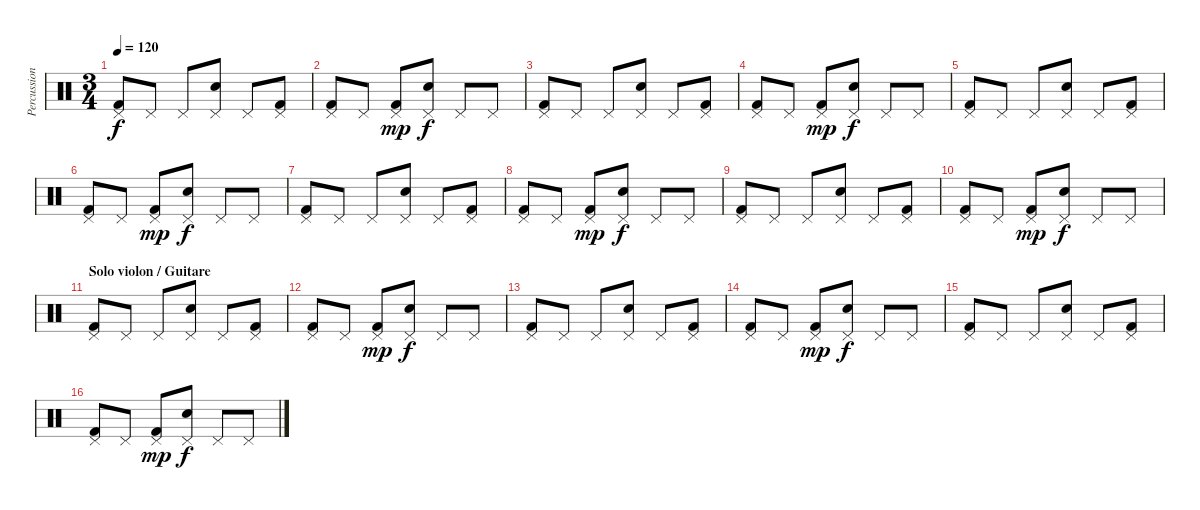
\track ("Percussions" "Percussion") {instrument percussion}
\staff {score}
\articulation defaults
\ts (3 4)
\tempo 120
\clef neutral
\ks c
("Pedal Hi-Hat (hit)" "Kick (hit) 2").8{dy f} "Pedal Hi-Hat (hit)".8 "Pedal Hi-Hat (hit)".8 ("Pedal Hi-Hat (hit)" "Electric Snare (hit)").8 "Pedal Hi-Hat (hit)".8 ("Pedal Hi-Hat (hit)" "Kick (hit) 2").8 |
("Pedal Hi-Hat (hit)" "Kick (hit) 2").8 "Pedal Hi-Hat (hit)".8 ("Pedal Hi-Hat (hit)" "Kick (hit) 2").8{dy mp} ("Pedal Hi-Hat (hit)" "Electric Snare (hit)").8{dy f} "Pedal Hi-Hat (hit)".8 "Pedal Hi-Hat (hit)".8 |
("Pedal Hi-Hat (hit)" "Kick (hit) 2").8 "Pedal Hi-Hat (hit)".8 "Pedal Hi-Hat (hit)".8 ("Pedal Hi-Hat (hit)" "Electric Snare (hit)").8 "Pedal Hi-Hat (hit)".8 ("Pedal Hi-Hat (hit)" "Kick (hit) 2").8 |
("Pedal Hi-Hat (hit)" "Kick (hit) 2").8 "Pedal Hi-Hat (hit)".8 ("Pedal Hi-Hat (hit)" "Kick (hit) 2").8{dy mp} ("Pedal Hi-Hat (hit)" "Electric Snare (hit)").8{dy f} "Pedal Hi-Hat (hit)".8 "Pedal Hi-Hat (hit)".8 |
("Pedal Hi-Hat (hit)" "Kick (hit) 2").8 "Pedal Hi-Hat (hit)".8 "Pedal Hi-Hat (hit)".8 ("Pedal Hi-Hat (hit)" "Electric Snare (hit)").8 "Pedal Hi-Hat (hit)".8 ("Pedal Hi-Hat (hit)" "Kick (hit) 2").8 |
("Pedal Hi-Hat (hit)" "Kick (hit) 2").8 "Pedal Hi-Hat (hit)".8 ("Pedal Hi-Hat (hit)" "Kick (hit) 2").8{dy mp} ("Pedal Hi-Hat (hit)" "Electric Snare (hit)").8{dy f} "Pedal Hi-Hat (hit)".8 "Pedal Hi-Hat (hit)".8 |
("Pedal Hi-Hat (hit)" "Kick (hit) 2").8 "Pedal Hi-Hat (hit)".8 "Pedal Hi-Hat (hit)".8 ("Pedal Hi-Hat (hit)" "Electric Snare (hit)").8 "Pedal Hi-Hat (hit)".8 ("Pedal Hi-Hat (hit)" "Kick (hit) 2").8 |
("Pedal Hi-Hat (hit)" "Kick (hit) 2").8 "Pedal Hi-Hat (hit)".8 ("Pedal Hi-Hat (hit)" "Kick (hit) 2").8{dy mp} ("Pedal Hi-Hat (hit)" "Electric Snare (hit)").8{dy f} "Pedal Hi-Hat (hit)".8 "Pedal Hi-Hat (hit)".8 |
("Pedal Hi-Hat (hit)" "Kick (hit) 2").8 "Pedal Hi-Hat (hit)".8 "Pedal Hi-Hat (hit)".8 ("Pedal Hi-Hat (hit)" "Electric Snare (hit)").8 "Pedal Hi-Hat (hit)".8 ("Pedal Hi-Hat (hit)" "Kick (hit) 2").8 |
("Pedal Hi-Hat (hit)" "Kick (hit) 2").8 "Pedal Hi-Hat (hit)".8 ("Pedal Hi-Hat (hit)" "Kick (hit) 2").8{dy mp} ("Pedal Hi-Hat (hit)" "Electric Snare (hit)").8{dy f} "Pedal Hi-Hat (hit)".8 "Pedal Hi-Hat (hit)".8 |
\section ("" "Solo violon / Guitare")
("Pedal Hi-Hat (hit)" "Kick (hit) 2").8 "Pedal Hi-Hat (hit)".8 "Pedal Hi-Hat (hit)".8 ("Pedal Hi-Hat (hit)" "Electric Snare (hit)").8 "Pedal Hi-Hat (hit)".8 ("Pedal Hi-Hat (hit)" "Kick (hit) 2").8 |
("Pedal Hi-Hat (hit)" "Kick (hit) 2").8 "Pedal Hi-Hat (hit)".8 ("Pedal Hi-Hat (hit)" "Kick (hit) 2").8{dy mp} ("Pedal Hi-Hat (hit)" "Electric Snare (hit)").8{dy f} "Pedal Hi-Hat (hit)".8 "Pedal Hi-Hat (hit)".8 |
("Pedal Hi-Hat (hit)" "Kick (hit) 2").8 "Pedal Hi-Hat (hit)".8 "Pedal Hi-Hat (hit)".8 ("Pedal Hi-Hat (hit)" "Electric Snare (hit)").8 "Pedal Hi-Hat (hit)".8 ("Pedal Hi-Hat (hit)" "Kick (hit) 2").8 |
("Pedal Hi-Hat (hit)" "Kick (hit) 2").8 "Pedal Hi-Hat (hit)".8 ("Pedal Hi-Hat (hit)" "Kick (hit) 2").8{dy mp} ("Pedal Hi-Hat (hit)" "Electric Snare (hit)").8{dy f} "Pedal Hi-Hat (hit)".8 "Pedal Hi-Hat (hit)".8 |
("Pedal Hi-Hat (hit)" "Kick (hit) 2").8 "Pedal Hi-Hat (hit)".8 "Pedal Hi-Hat (hit)".8 ("Pedal Hi-Hat (hit)" "Electric Snare (hit)").8 "Pedal Hi-Hat (hit)".8 ("Pedal Hi-Hat (hit)" "Kick (hit) 2").8 |
("Pedal Hi-Hat (hit)" "Kick (hit) 2").8 "Pedal Hi-Hat (hit)".8 ("Pedal Hi-Hat (hit)" "Kick (hit) 2").8{dy mp} ("Pedal Hi-Hat (hit)" "Electric Snare (hit)").8{dy f} "Pedal Hi-Hat (hit)".8 "Pedal Hi-Hat (hit)".8
